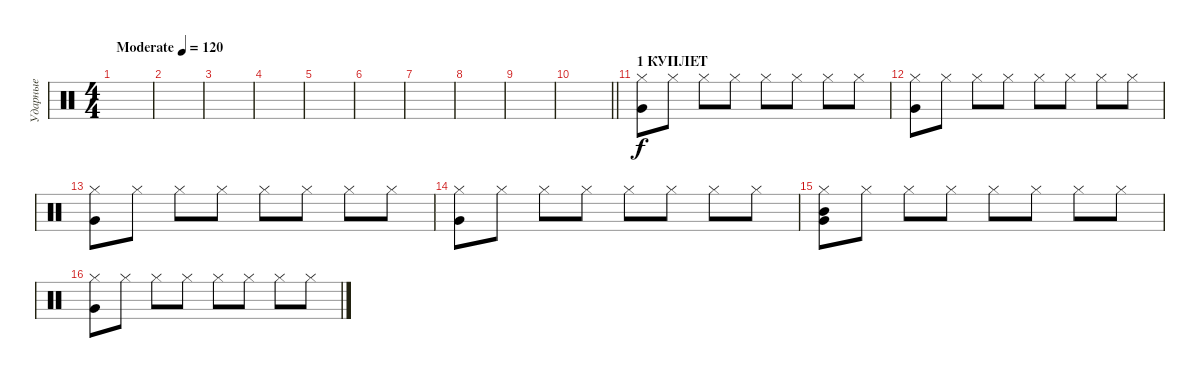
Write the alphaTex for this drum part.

\track ("Ударные" "Ударные") {instrument percussion}
\staff {score}
\articulation defaults
\ts (4 4)
\tempo (120 "Moderate")
\clef neutral
\ks c
|
|
|
|
|
|
|
|
|
\barLineRight lightlight
|
\section ("" "1 КУПЛЕТ")
("Hi-Hat (closed)" "Very Low Tom (hit)").8 "Hi-Hat (closed)".8 "Hi-Hat (closed)".8 "Hi-Hat (closed)".8 "Hi-Hat (closed)".8 "Hi-Hat (closed)".8 "Hi-Hat (closed)".8 "Hi-Hat (closed)".8 |
("Hi-Hat (closed)" "Very Low Tom (hit)").8 "Hi-Hat (closed)".8 "Hi-Hat (closed)".8 "Hi-Hat (closed)".8 "Hi-Hat (closed)".8 "Hi-Hat (closed)".8 "Hi-Hat (closed)".8 "Hi-Hat (closed)".8 |
("Hi-Hat (closed)" "Very Low Tom (hit)").8 "Hi-Hat (closed)".8 "Hi-Hat (closed)".8 "Hi-Hat (closed)".8 "Hi-Hat (closed)".8 "Hi-Hat (closed)".8 "Hi-Hat (closed)".8 "Hi-Hat (closed)".8 |
("Hi-Hat (closed)" "Very Low Tom (hit)").8 "Hi-Hat (closed)".8 "Hi-Hat (closed)".8 "Hi-Hat (closed)".8 "Hi-Hat (closed)".8 "Hi-Hat (closed)".8 "Hi-Hat (closed)".8 "Hi-Hat (closed)".8 |
("Hi-Hat (closed)" "Mid Tom (hit)" "Very Low Tom (hit)").8 "Hi-Hat (closed)".8 "Hi-Hat (closed)".8 "Hi-Hat (closed)".8 "Hi-Hat (closed)".8 "Hi-Hat (closed)".8 "Hi-Hat (closed)".8 "Hi-Hat (closed)".8 |
("Hi-Hat (closed)" "Very Low Tom (hit)").8 "Hi-Hat (closed)".8 "Hi-Hat (closed)".8 "Hi-Hat (closed)".8 "Hi-Hat (closed)".8 "Hi-Hat (closed)".8 "Hi-Hat (closed)".8 "Hi-Hat (closed)".8
